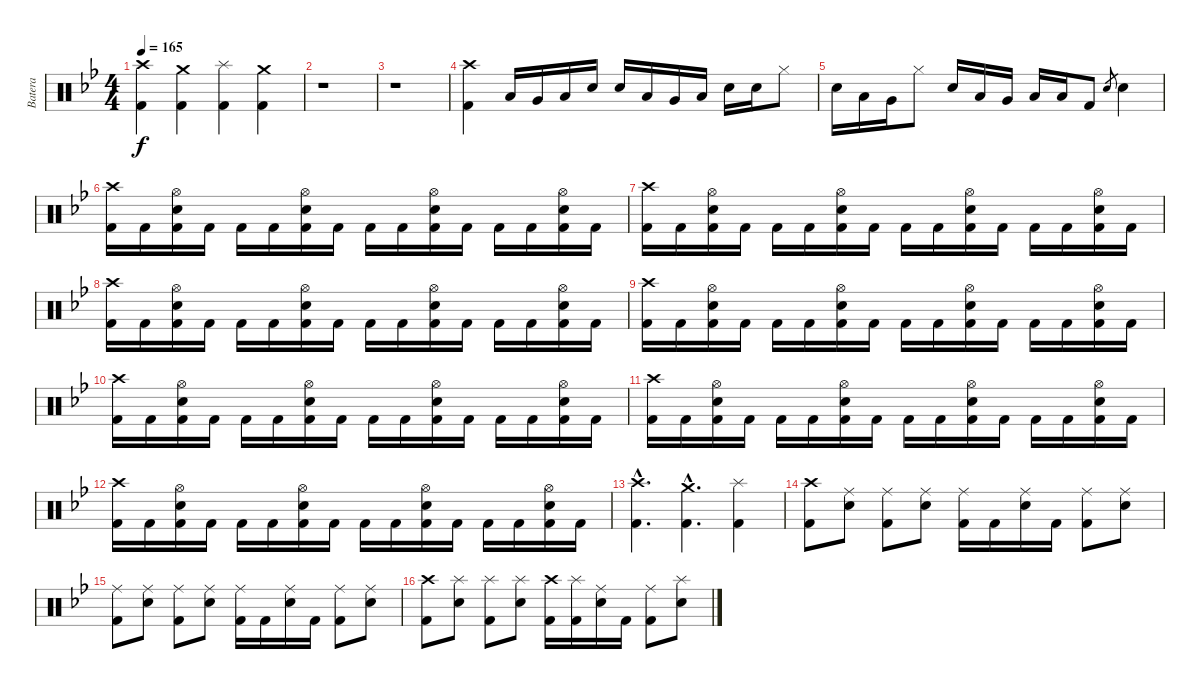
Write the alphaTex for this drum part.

\track ("Batera" "Batera") {instrument percussion}
\staff {score}
\articulation defaults
\ts (4 4)
\tempo 165
\clef neutral
\ks bb
("Crash high (hit)" "Kick (hit) 2").4{dy f} ("Crash medium (hit)" "Kick (hit) 2").4 ("Splash (hit)" "Kick (hit) 2").4 ("Crash medium (hit)" "Kick (hit) 2").4 |
r.1 |
r.1 |
("Crash high (hit)" "Kick (hit) 2").4 "Low Floor Tom (hit)".16 "Very Low Tom (hit)".16 "Low Floor Tom (hit)".16 "Electric Snare (hit)".16 "Electric Snare (hit)".16 "Low Floor Tom (hit)".16 "Very Low Tom (hit)".16 "Low Tom (hit)".16 "Electric Snare (hit)".16 "Electric Snare (hit)".16 "Hi-Hat (closed)".8 |
"Electric Snare (hit)".16 "Low Floor Tom (hit)".16 "Very Low Tom (hit)".16 "Hi-Hat (closed)".8 "Electric Snare (hit)".16 "Low Floor Tom (hit)".16 "Very Low Tom (hit)".16 "Low Floor Tom (hit)".16 "Low Tom (hit)".16 "Kick (hit) 2".8 "Electric Snare (hit)".8{gr} "Electric Snare (hit)".4 |
("Crash high (hit)" "Kick (hit) 2").16 "Kick (hit) 2".16 ("Hi-Hat (open)" "Electric Snare (hit)" "Kick (hit) 2").16 "Kick (hit) 2".16 "Kick (hit) 2".16 "Kick (hit) 2".16 ("Hi-Hat (open)" "Electric Snare (hit)" "Kick (hit) 2").16 "Kick (hit) 2".16 "Kick (hit) 2".16 "Kick (hit) 2".16 ("Hi-Hat (open)" "Electric Snare (hit)" "Kick (hit) 2").16 "Kick (hit) 2".16 "Kick (hit) 2".16 "Kick (hit) 2".16 ("Hi-Hat (open)" "Electric Snare (hit)" "Kick (hit) 2").16 "Kick (hit) 2".16 |
("Crash high (hit)" "Kick (hit) 2").16 "Kick (hit) 2".16 ("Hi-Hat (open)" "Electric Snare (hit)" "Kick (hit) 2").16 "Kick (hit) 2".16 "Kick (hit) 2".16 "Kick (hit) 2".16 ("Hi-Hat (open)" "Electric Snare (hit)" "Kick (hit) 2").16 "Kick (hit) 2".16 "Kick (hit) 2".16 "Kick (hit) 2".16 ("Hi-Hat (open)" "Electric Snare (hit)" "Kick (hit) 2").16 "Kick (hit) 2".16 "Kick (hit) 2".16 "Kick (hit) 2".16 ("Hi-Hat (open)" "Electric Snare (hit)" "Kick (hit) 2").16 "Kick (hit) 2".16 |
("Crash high (hit)" "Kick (hit) 2").16 "Kick (hit) 2".16 ("Hi-Hat (open)" "Electric Snare (hit)" "Kick (hit) 2").16 "Kick (hit) 2".16 "Kick (hit) 2".16 "Kick (hit) 2".16 ("Hi-Hat (open)" "Electric Snare (hit)" "Kick (hit) 2").16 "Kick (hit) 2".16 "Kick (hit) 2".16 "Kick (hit) 2".16 ("Hi-Hat (open)" "Electric Snare (hit)" "Kick (hit) 2").16 "Kick (hit) 2".16 "Kick (hit) 2".16 "Kick (hit) 2".16 ("Hi-Hat (open)" "Electric Snare (hit)" "Kick (hit) 2").16 "Kick (hit) 2".16 |
("Crash high (hit)" "Kick (hit) 2").16 "Kick (hit) 2".16 ("Hi-Hat (open)" "Electric Snare (hit)" "Kick (hit) 2").16 "Kick (hit) 2".16 "Kick (hit) 2".16 "Kick (hit) 2".16 ("Hi-Hat (open)" "Electric Snare (hit)" "Kick (hit) 2").16 "Kick (hit) 2".16 "Kick (hit) 2".16 "Kick (hit) 2".16 ("Hi-Hat (open)" "Electric Snare (hit)" "Kick (hit) 2").16 "Kick (hit) 2".16 "Kick (hit) 2".16 "Kick (hit) 2".16 ("Hi-Hat (open)" "Electric Snare (hit)" "Kick (hit) 2").16 "Kick (hit) 2".16 |
("Crash high (hit)" "Kick (hit) 2").16 "Kick (hit) 2".16 ("Hi-Hat (open)" "Electric Snare (hit)" "Kick (hit) 2").16 "Kick (hit) 2".16 "Kick (hit) 2".16 "Kick (hit) 2".16 ("Hi-Hat (open)" "Electric Snare (hit)" "Kick (hit) 2").16 "Kick (hit) 2".16 "Kick (hit) 2".16 "Kick (hit) 2".16 ("Hi-Hat (open)" "Electric Snare (hit)" "Kick (hit) 2").16 "Kick (hit) 2".16 "Kick (hit) 2".16 "Kick (hit) 2".16 ("Hi-Hat (open)" "Electric Snare (hit)" "Kick (hit) 2").16 "Kick (hit) 2".16 |
("Crash high (hit)" "Kick (hit) 2").16 "Kick (hit) 2".16 ("Hi-Hat (open)" "Electric Snare (hit)" "Kick (hit) 2").16 "Kick (hit) 2".16 "Kick (hit) 2".16 "Kick (hit) 2".16 ("Hi-Hat (open)" "Electric Snare (hit)" "Kick (hit) 2").16 "Kick (hit) 2".16 "Kick (hit) 2".16 "Kick (hit) 2".16 ("Hi-Hat (open)" "Electric Snare (hit)" "Kick (hit) 2").16 "Kick (hit) 2".16 "Kick (hit) 2".16 "Kick (hit) 2".16 ("Hi-Hat (open)" "Electric Snare (hit)" "Kick (hit) 2").16 "Kick (hit) 2".16 |
("Crash high (hit)" "Kick (hit) 2").16 "Kick (hit) 2".16 ("Hi-Hat (open)" "Electric Snare (hit)" "Kick (hit) 2").16 "Kick (hit) 2".16 "Kick (hit) 2".16 "Kick (hit) 2".16 ("Hi-Hat (open)" "Electric Snare (hit)" "Kick (hit) 2").16 "Kick (hit) 2".16 "Kick (hit) 2".16 "Kick (hit) 2".16 ("Hi-Hat (open)" "Electric Snare (hit)" "Kick (hit) 2").16 "Kick (hit) 2".16 "Kick (hit) 2".16 "Kick (hit) 2".16 ("Hi-Hat (open)" "Electric Snare (hit)" "Kick (hit) 2").16 "Kick (hit) 2".16 |
("Crash high (hit)"{hac} "Kick (hit) 2"{hac}).4{d} ("Crash medium (hit)"{hac} "Kick (hit) 2"{hac}).4{d} ("Splash (hit)" "Kick (hit) 2").4 |
("Crash high (hit)" "Kick (hit) 2").8 ("Ride (middle)" "Electric Snare (hit)").8 ("Ride (middle)" "Kick (hit) 2").8 ("Ride (middle)" "Electric Snare (hit)").8 ("Ride (middle)" "Kick (hit) 2").16 "Kick (hit) 2".16 ("Ride (middle)" "Electric Snare (hit)").16 "Kick (hit) 2".16 ("Ride (middle)" "Kick (hit) 2").8 ("Ride (middle)" "Electric Snare (hit)").8 |
("Ride (middle)" "Kick (hit) 2").8 ("Ride (middle)" "Electric Snare (hit)").8 ("Ride (middle)" "Kick (hit) 2").8 ("Ride (middle)" "Electric Snare (hit)").8 ("Ride (middle)" "Kick (hit) 2").16 "Kick (hit) 2".16 ("Ride (middle)" "Electric Snare (hit)").16 "Kick (hit) 2".16 ("Ride (middle)" "Kick (hit) 2").8 ("Ride (middle)" "Electric Snare (hit)").8 |
("Crash high (hit)" "Kick (hit) 2").8 ("Splash (hit)" "Electric Snare (hit)").8 ("Splash (hit)" "Kick (hit) 2").8 ("Splash (hit)" "Electric Snare (hit)").8 ("Crash high (hit)" "Kick (hit) 2").16 ("Splash (hit)" "Kick (hit) 2").16 ("Ride (middle)" "Electric Snare (hit)").16 "Kick (hit) 2".16 ("Ride (middle)" "Kick (hit) 2").8 ("Splash (hit)" "Electric Snare (hit)").8
